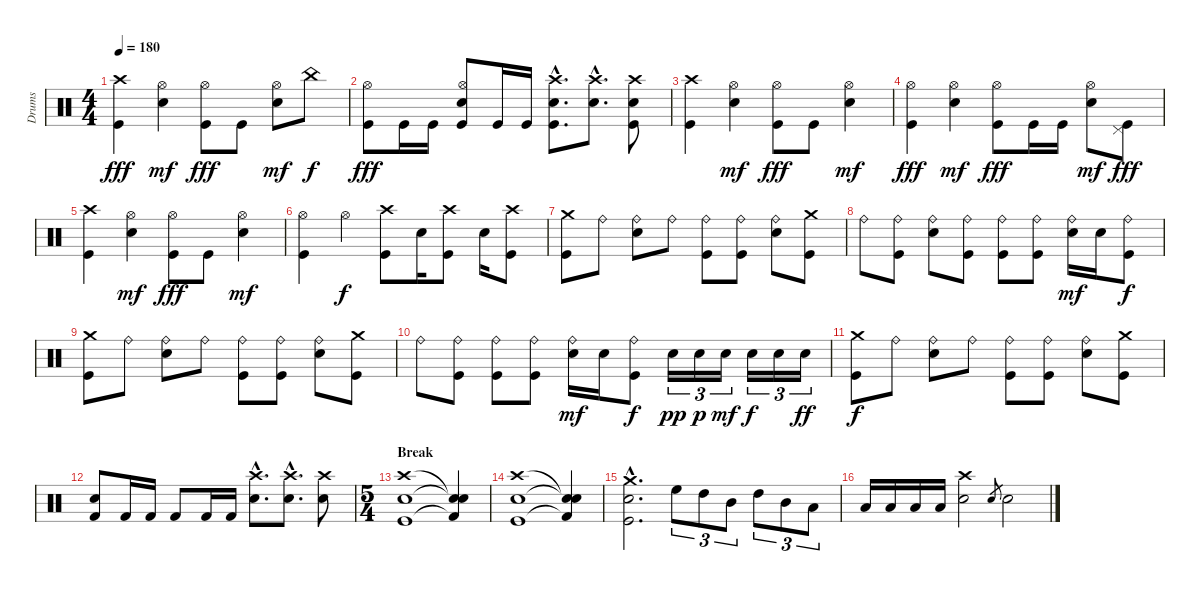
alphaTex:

\track ("Drums" "Drums") {instrument percussion}
\staff {score}
\articulation defaults
\ts (4 4)
\tempo 180
\clef neutral
\ks c
("Crash high (hit)" "Kick (hit)").4{dy fff} ("Hi-Hat (open)" "Electric Snare (hit)").4{dy mf} ("Hi-Hat (open)" "Kick (hit)").8{dy fff} "Kick (hit)".8 ("Hi-Hat (open)" "Electric Snare (hit)").8{dy mf} "China (hit)".8{dy f} |
("Hi-Hat (open)" "Kick (hit)").8{dy fff} "Kick (hit)".16 "Kick (hit)".16 ("Hi-Hat (open)" "Electric Snare (hit)" "Kick (hit)").8 "Kick (hit)".16 "Kick (hit)".16 ("Crash high (hit)"{hac} "Electric Snare (hit)"{hac} "Kick (hit)"{hac}).8{d} ("Crash high (hit)"{hac} "Electric Snare (hit)"{hac}).8{d} ("Crash high (hit)" "Electric Snare (hit)" "Kick (hit)").8 |
("Crash high (hit)" "Kick (hit)").4 ("Hi-Hat (open)" "Electric Snare (hit)").4{dy mf} ("Hi-Hat (open)" "Kick (hit)").8{dy fff} "Kick (hit)".8 ("Hi-Hat (open)" "Electric Snare (hit)").4{dy mf} |
("Hi-Hat (open)" "Kick (hit)").4{dy fff} ("Hi-Hat (open)" "Electric Snare (hit)").4{dy mf} ("Hi-Hat (open)" "Kick (hit)").8{dy fff} "Kick (hit)".16 "Kick (hit)".16 ("Hi-Hat (open)" "Electric Snare (hit)").8{dy mf} ("Pedal Hi-Hat (hit)" "Kick (hit)").8{dy fff} |
("Crash high (hit)" "Kick (hit)").4 ("Hi-Hat (open)" "Electric Snare (hit)").4{dy mf} ("Hi-Hat (open)" "Kick (hit)").8{dy fff} "Kick (hit)".8 ("Hi-Hat (open)" "Electric Snare (hit)").4{dy mf} |
("Hi-Hat (open)" "Kick (hit)").4 "Hi-Hat (open)".4{dy f} ("Crash high (hit)" "Kick (hit)").8 "Electric Snare (hit)".16 ("Crash high (hit)" "Kick (hit)").8 "Electric Snare (hit)".16 ("Crash high (hit)" "Kick (hit)").8 |
("Crash medium (hit)" "Kick (hit)").8 "Ride (bell)".8 ("Ride (bell)" "Electric Snare (hit)").8 "Ride (bell)".8 ("Ride (bell)" "Kick (hit)").8 ("Ride (bell)" "Kick (hit)").8 ("Ride (bell)" "Electric Snare (hit)").8 ("Crash medium (hit)" "Kick (hit)").8 |
"Ride (bell)".8 ("Ride (bell)" "Kick (hit)").8 ("Ride (bell)" "Electric Snare (hit)").8 ("Ride (bell)" "Kick (hit)").8 ("Ride (bell)" "Kick (hit)").8 ("Ride (bell)" "Kick (hit)").8 ("Ride (bell)" "Electric Snare (hit)").16{dy mf} "Electric Snare (hit)".16 ("Ride (bell)" "Kick (hit)").8{dy f} |
("Crash medium (hit)" "Kick (hit)").8 "Ride (bell)".8 ("Ride (bell)" "Electric Snare (hit)").8 "Ride (bell)".8 ("Ride (bell)" "Kick (hit)").8 ("Ride (bell)" "Kick (hit)").8 ("Ride (bell)" "Electric Snare (hit)").8 ("Crash medium (hit)" "Kick (hit)").8 |
"Ride (bell)".8 ("Ride (bell)" "Kick (hit)").8 ("Ride (bell)" "Kick (hit)").8 ("Ride (bell)" "Kick (hit)").8 ("Ride (bell)" "Electric Snare (hit)").16{dy mf} "Electric Snare (hit)".16 ("Ride (bell)" "Kick (hit)").8{dy f} "Electric Snare (hit)".16{tu (3 2) dy pp} "Electric Snare (hit)".16{tu (3 2) dy p} "Electric Snare (hit)".16{tu (3 2) dy mf} "Electric Snare (hit)".16{tu (3 2) dy f} "Electric Snare (hit)".16{tu (3 2)} "Electric Snare (hit)".16{tu (3 2) dy ff} |
("Crash medium (hit)" "Kick (hit)").8{dy f} "Ride (bell)".8 ("Ride (bell)" "Electric Snare (hit)").8 "Ride (bell)".8 ("Ride (bell)" "Kick (hit)").8 ("Ride (bell)" "Kick (hit)").8 ("Ride (bell)" "Electric Snare (hit)").8 ("Crash medium (hit)" "Kick (hit)").8 |
("Kick (hit) 2" "Electric Snare (hit)").8 "Kick (hit) 2".16 "Kick (hit) 2".16 "Kick (hit) 2".8 "Kick (hit) 2".16 "Kick (hit) 2".16 ("Crash high (hit)"{hac} "Electric Snare (hit)"{hac}).8{d} ("Crash high (hit)"{hac} "Electric Snare (hit)"{hac}).8{d} ("Crash high (hit)" "Electric Snare (hit)").8 |
\ts (5 4)
\section ("" "Break")
("Kick (hit)" "Crash high (hit)" "Electric Snare (hit)").1 ("Kick (hit) 2"{t} "Snare (hit)"{t} "Snare (hit)"{t}).4 |
("Kick (hit)" "Crash high (hit)" "Electric Snare (hit)").1 ("Kick (hit) 2"{t} "Snare (hit)"{t} "Snare (hit)"{t}).4 |
("Crash medium (hit)"{hac} "Kick (hit)"{hac} "Electric Snare (hit)"{hac}).2{d} "High Floor Tom (hit)".8{tu (3 2)} "High Tom (hit)".8{tu (3 2)} "Mid Tom (hit)".8{tu (3 2)} "High Tom (hit)".8{tu (3 2)} "Mid Tom (hit)".8{tu (3 2)} "Low Tom (hit)".8{tu (3 2)} |
"Low Floor Tom (hit)".16 "Low Floor Tom (hit)".16 "Low Floor Tom (hit)".16 "Low Floor Tom (hit)".16 ("Crash high (hit)" "Electric Snare (hit)").2 "Electric Snare (hit)".8{gr} "Electric Snare (hit)".2
